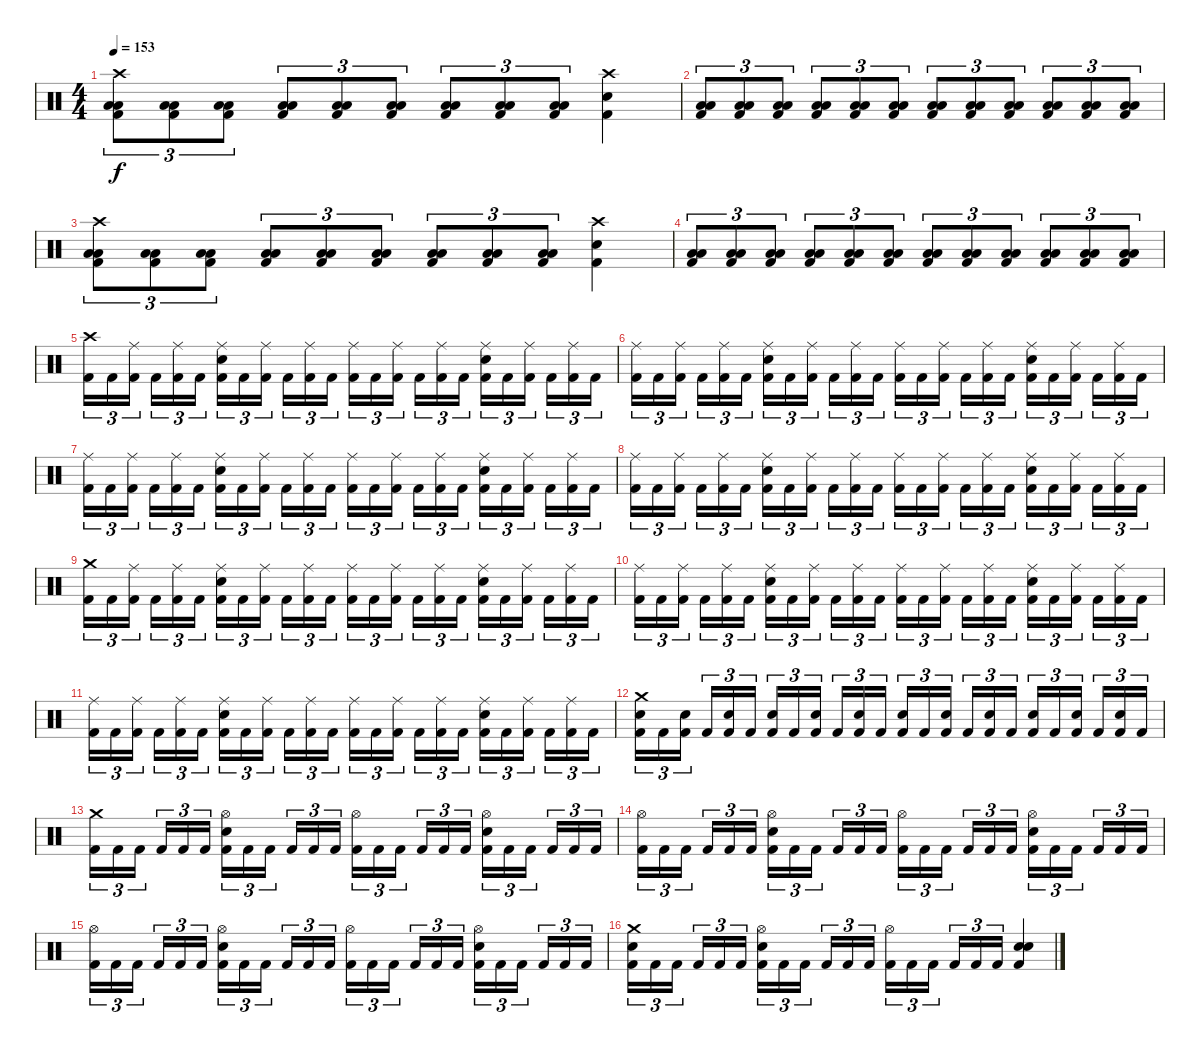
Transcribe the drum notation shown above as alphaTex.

\track "" {instrument percussion}
\staff {score}
\articulation defaults
\ts (4 4)
\tempo 153
\clef neutral
\ks c
("Crash high (hit)" "Low Floor Tom (hit)" "Low Tom (hit)" "Kick (hit) 2").8{tu (3 2) dy f} ("Low Floor Tom (hit)" "Low Tom (hit)" "Kick (hit) 2").8{tu (3 2)} ("Low Floor Tom (hit)" "Low Tom (hit)" "Kick (hit) 2").8{tu (3 2)} ("Low Floor Tom (hit)" "Low Tom (hit)" "Kick (hit) 2").8{tu (3 2)} ("Low Floor Tom (hit)" "Low Tom (hit)" "Kick (hit) 2").8{tu (3 2)} ("Low Floor Tom (hit)" "Low Tom (hit)" "Kick (hit) 2").8{tu (3 2)} ("Low Floor Tom (hit)" "Low Tom (hit)" "Kick (hit) 2").8{tu (3 2)} ("Low Floor Tom (hit)" "Low Tom (hit)" "Kick (hit) 2").8{tu (3 2)} ("Low Floor Tom (hit)" "Low Tom (hit)" "Kick (hit) 2").8{tu (3 2)} ("Crash high (hit)" "Electric Snare (hit)" "Kick (hit) 2").4 |
("Low Floor Tom (hit)" "Low Tom (hit)" "Kick (hit) 2").8{tu (3 2)} ("Low Floor Tom (hit)" "Low Tom (hit)" "Kick (hit) 2").8{tu (3 2)} ("Low Floor Tom (hit)" "Low Tom (hit)" "Kick (hit) 2").8{tu (3 2)} ("Low Floor Tom (hit)" "Low Tom (hit)" "Kick (hit) 2").8{tu (3 2)} ("Low Floor Tom (hit)" "Low Tom (hit)" "Kick (hit) 2").8{tu (3 2)} ("Low Floor Tom (hit)" "Low Tom (hit)" "Kick (hit) 2").8{tu (3 2)} ("Low Floor Tom (hit)" "Low Tom (hit)" "Kick (hit) 2").8{tu (3 2)} ("Low Floor Tom (hit)" "Low Tom (hit)" "Kick (hit) 2").8{tu (3 2)} ("Low Floor Tom (hit)" "Low Tom (hit)" "Kick (hit) 2").8{tu (3 2)} ("Low Floor Tom (hit)" "Low Tom (hit)" "Kick (hit) 2").8{tu (3 2)} ("Low Floor Tom (hit)" "Low Tom (hit)" "Kick (hit) 2").8{tu (3 2)} ("Low Floor Tom (hit)" "Low Tom (hit)" "Kick (hit) 2").8{tu (3 2)} |
("Crash high (hit)" "Low Floor Tom (hit)" "Low Tom (hit)" "Kick (hit) 2").8{tu (3 2)} ("Low Floor Tom (hit)" "Low Tom (hit)" "Kick (hit) 2").8{tu (3 2)} ("Low Floor Tom (hit)" "Low Tom (hit)" "Kick (hit) 2").8{tu (3 2)} ("Low Floor Tom (hit)" "Low Tom (hit)" "Kick (hit) 2").8{tu (3 2)} ("Low Floor Tom (hit)" "Low Tom (hit)" "Kick (hit) 2").8{tu (3 2)} ("Low Floor Tom (hit)" "Low Tom (hit)" "Kick (hit) 2").8{tu (3 2)} ("Low Floor Tom (hit)" "Low Tom (hit)" "Kick (hit) 2").8{tu (3 2)} ("Low Floor Tom (hit)" "Low Tom (hit)" "Kick (hit) 2").8{tu (3 2)} ("Low Floor Tom (hit)" "Low Tom (hit)" "Kick (hit) 2").8{tu (3 2)} ("Crash high (hit)" "Electric Snare (hit)" "Kick (hit) 2").4 |
("Low Floor Tom (hit)" "Low Tom (hit)" "Kick (hit) 2").8{tu (3 2)} ("Low Floor Tom (hit)" "Low Tom (hit)" "Kick (hit) 2").8{tu (3 2)} ("Low Floor Tom (hit)" "Low Tom (hit)" "Kick (hit) 2").8{tu (3 2)} ("Low Floor Tom (hit)" "Low Tom (hit)" "Kick (hit) 2").8{tu (3 2)} ("Low Floor Tom (hit)" "Low Tom (hit)" "Kick (hit) 2").8{tu (3 2)} ("Low Floor Tom (hit)" "Low Tom (hit)" "Kick (hit) 2").8{tu (3 2)} ("Low Floor Tom (hit)" "Low Tom (hit)" "Kick (hit) 2").8{tu (3 2)} ("Low Floor Tom (hit)" "Low Tom (hit)" "Kick (hit) 2").8{tu (3 2)} ("Low Floor Tom (hit)" "Low Tom (hit)" "Kick (hit) 2").8{tu (3 2)} ("Low Floor Tom (hit)" "Low Tom (hit)" "Kick (hit) 2").8{tu (3 2)} ("Low Floor Tom (hit)" "Low Tom (hit)" "Kick (hit) 2").8{tu (3 2)} ("Low Floor Tom (hit)" "Low Tom (hit)" "Kick (hit) 2").8{tu (3 2)} |
\section ("" "")
("Crash high (hit)" "Kick (hit) 2").16{tu (3 2)} "Kick (hit) 2".16{tu (3 2)} ("Ride (middle)" "Kick (hit) 2").16{tu (3 2)} "Kick (hit) 2".16{tu (3 2)} ("Ride (middle)" "Kick (hit) 2").16{tu (3 2)} "Kick (hit) 2".16{tu (3 2)} ("Ride (middle)" "Electric Snare (hit)" "Kick (hit) 2").16{tu (3 2)} "Kick (hit) 2".16{tu (3 2)} ("Ride (middle)" "Kick (hit) 2").16{tu (3 2)} "Kick (hit) 2".16{tu (3 2)} ("Ride (middle)" "Kick (hit) 2").16{tu (3 2)} "Kick (hit) 2".16{tu (3 2)} ("Ride (middle)" "Kick (hit) 2").16{tu (3 2)} "Kick (hit) 2".16{tu (3 2)} ("Ride (middle)" "Kick (hit) 2").16{tu (3 2)} "Kick (hit) 2".16{tu (3 2)} ("Ride (middle)" "Kick (hit) 2").16{tu (3 2)} "Kick (hit) 2".16{tu (3 2)} ("Ride (middle)" "Electric Snare (hit)" "Kick (hit) 2").16{tu (3 2)} "Kick (hit) 2".16{tu (3 2)} ("Ride (middle)" "Kick (hit) 2").16{tu (3 2)} "Kick (hit) 2".16{tu (3 2)} ("Ride (middle)" "Kick (hit) 2").16{tu (3 2)} "Kick (hit) 2".16{tu (3 2)} |
("Ride (middle)" "Kick (hit) 2").16{tu (3 2)} "Kick (hit) 2".16{tu (3 2)} ("Ride (middle)" "Kick (hit) 2").16{tu (3 2)} "Kick (hit) 2".16{tu (3 2)} ("Ride (middle)" "Kick (hit) 2").16{tu (3 2)} "Kick (hit) 2".16{tu (3 2)} ("Ride (middle)" "Electric Snare (hit)" "Kick (hit) 2").16{tu (3 2)} "Kick (hit) 2".16{tu (3 2)} ("Ride (middle)" "Kick (hit) 2").16{tu (3 2)} "Kick (hit) 2".16{tu (3 2)} ("Ride (middle)" "Kick (hit) 2").16{tu (3 2)} "Kick (hit) 2".16{tu (3 2)} ("Ride (middle)" "Kick (hit) 2").16{tu (3 2)} "Kick (hit) 2".16{tu (3 2)} ("Ride (middle)" "Kick (hit) 2").16{tu (3 2)} "Kick (hit) 2".16{tu (3 2)} ("Ride (middle)" "Kick (hit) 2").16{tu (3 2)} "Kick (hit) 2".16{tu (3 2)} ("Ride (middle)" "Electric Snare (hit)" "Kick (hit) 2").16{tu (3 2)} "Kick (hit) 2".16{tu (3 2)} ("Ride (middle)" "Kick (hit) 2").16{tu (3 2)} "Kick (hit) 2".16{tu (3 2)} ("Ride (middle)" "Kick (hit) 2").16{tu (3 2)} "Kick (hit) 2".16{tu (3 2)} |
("Ride (middle)" "Kick (hit) 2").16{tu (3 2)} "Kick (hit) 2".16{tu (3 2)} ("Ride (middle)" "Kick (hit) 2").16{tu (3 2)} "Kick (hit) 2".16{tu (3 2)} ("Ride (middle)" "Kick (hit) 2").16{tu (3 2)} "Kick (hit) 2".16{tu (3 2)} ("Ride (middle)" "Electric Snare (hit)" "Kick (hit) 2").16{tu (3 2)} "Kick (hit) 2".16{tu (3 2)} ("Ride (middle)" "Kick (hit) 2").16{tu (3 2)} "Kick (hit) 2".16{tu (3 2)} ("Ride (middle)" "Kick (hit) 2").16{tu (3 2)} "Kick (hit) 2".16{tu (3 2)} ("Ride (middle)" "Kick (hit) 2").16{tu (3 2)} "Kick (hit) 2".16{tu (3 2)} ("Ride (middle)" "Kick (hit) 2").16{tu (3 2)} "Kick (hit) 2".16{tu (3 2)} ("Ride (middle)" "Kick (hit) 2").16{tu (3 2)} "Kick (hit) 2".16{tu (3 2)} ("Ride (middle)" "Electric Snare (hit)" "Kick (hit) 2").16{tu (3 2)} "Kick (hit) 2".16{tu (3 2)} ("Ride (middle)" "Kick (hit) 2").16{tu (3 2)} "Kick (hit) 2".16{tu (3 2)} ("Ride (middle)" "Kick (hit) 2").16{tu (3 2)} "Kick (hit) 2".16{tu (3 2)} |
("Ride (middle)" "Kick (hit) 2").16{tu (3 2)} "Kick (hit) 2".16{tu (3 2)} ("Ride (middle)" "Kick (hit) 2").16{tu (3 2)} "Kick (hit) 2".16{tu (3 2)} ("Ride (middle)" "Kick (hit) 2").16{tu (3 2)} "Kick (hit) 2".16{tu (3 2)} ("Ride (middle)" "Electric Snare (hit)" "Kick (hit) 2").16{tu (3 2)} "Kick (hit) 2".16{tu (3 2)} ("Ride (middle)" "Kick (hit) 2").16{tu (3 2)} "Kick (hit) 2".16{tu (3 2)} ("Ride (middle)" "Kick (hit) 2").16{tu (3 2)} "Kick (hit) 2".16{tu (3 2)} ("Ride (middle)" "Kick (hit) 2").16{tu (3 2)} "Kick (hit) 2".16{tu (3 2)} ("Ride (middle)" "Kick (hit) 2").16{tu (3 2)} "Kick (hit) 2".16{tu (3 2)} ("Ride (middle)" "Kick (hit) 2").16{tu (3 2)} "Kick (hit) 2".16{tu (3 2)} ("Ride (middle)" "Electric Snare (hit)" "Kick (hit) 2").16{tu (3 2)} "Kick (hit) 2".16{tu (3 2)} ("Ride (middle)" "Kick (hit) 2").16{tu (3 2)} "Kick (hit) 2".16{tu (3 2)} ("Ride (middle)" "Kick (hit) 2").16{tu (3 2)} "Kick (hit) 2".16{tu (3 2)} |
("Crash medium (hit)" "Kick (hit) 2").16{tu (3 2)} "Kick (hit) 2".16{tu (3 2)} ("Ride (middle)" "Kick (hit) 2").16{tu (3 2)} "Kick (hit) 2".16{tu (3 2)} ("Ride (middle)" "Kick (hit) 2").16{tu (3 2)} "Kick (hit) 2".16{tu (3 2)} ("Ride (middle)" "Electric Snare (hit)" "Kick (hit) 2").16{tu (3 2)} "Kick (hit) 2".16{tu (3 2)} ("Ride (middle)" "Kick (hit) 2").16{tu (3 2)} "Kick (hit) 2".16{tu (3 2)} ("Ride (middle)" "Kick (hit) 2").16{tu (3 2)} "Kick (hit) 2".16{tu (3 2)} ("Ride (middle)" "Kick (hit) 2").16{tu (3 2)} "Kick (hit) 2".16{tu (3 2)} ("Ride (middle)" "Kick (hit) 2").16{tu (3 2)} "Kick (hit) 2".16{tu (3 2)} ("Ride (middle)" "Kick (hit) 2").16{tu (3 2)} "Kick (hit) 2".16{tu (3 2)} ("Ride (middle)" "Electric Snare (hit)" "Kick (hit) 2").16{tu (3 2)} "Kick (hit) 2".16{tu (3 2)} ("Ride (middle)" "Kick (hit) 2").16{tu (3 2)} "Kick (hit) 2".16{tu (3 2)} ("Ride (middle)" "Kick (hit) 2").16{tu (3 2)} "Kick (hit) 2".16{tu (3 2)} |
("Ride (middle)" "Kick (hit) 2").16{tu (3 2)} "Kick (hit) 2".16{tu (3 2)} ("Ride (middle)" "Kick (hit) 2").16{tu (3 2)} "Kick (hit) 2".16{tu (3 2)} ("Ride (middle)" "Kick (hit) 2").16{tu (3 2)} "Kick (hit) 2".16{tu (3 2)} ("Ride (middle)" "Electric Snare (hit)" "Kick (hit) 2").16{tu (3 2)} "Kick (hit) 2".16{tu (3 2)} ("Ride (middle)" "Kick (hit) 2").16{tu (3 2)} "Kick (hit) 2".16{tu (3 2)} ("Ride (middle)" "Kick (hit) 2").16{tu (3 2)} "Kick (hit) 2".16{tu (3 2)} ("Ride (middle)" "Kick (hit) 2").16{tu (3 2)} "Kick (hit) 2".16{tu (3 2)} ("Ride (middle)" "Kick (hit) 2").16{tu (3 2)} "Kick (hit) 2".16{tu (3 2)} ("Ride (middle)" "Kick (hit) 2").16{tu (3 2)} "Kick (hit) 2".16{tu (3 2)} ("Ride (middle)" "Electric Snare (hit)" "Kick (hit) 2").16{tu (3 2)} "Kick (hit) 2".16{tu (3 2)} ("Ride (middle)" "Kick (hit) 2").16{tu (3 2)} "Kick (hit) 2".16{tu (3 2)} ("Ride (middle)" "Kick (hit) 2").16{tu (3 2)} "Kick (hit) 2".16{tu (3 2)} |
("Ride (middle)" "Kick (hit) 2").16{tu (3 2)} "Kick (hit) 2".16{tu (3 2)} ("Ride (middle)" "Kick (hit) 2").16{tu (3 2)} "Kick (hit) 2".16{tu (3 2)} ("Ride (middle)" "Kick (hit) 2").16{tu (3 2)} "Kick (hit) 2".16{tu (3 2)} ("Ride (middle)" "Electric Snare (hit)" "Kick (hit) 2").16{tu (3 2)} "Kick (hit) 2".16{tu (3 2)} ("Ride (middle)" "Kick (hit) 2").16{tu (3 2)} "Kick (hit) 2".16{tu (3 2)} ("Ride (middle)" "Kick (hit) 2").16{tu (3 2)} "Kick (hit) 2".16{tu (3 2)} ("Ride (middle)" "Kick (hit) 2").16{tu (3 2)} "Kick (hit) 2".16{tu (3 2)} ("Ride (middle)" "Kick (hit) 2").16{tu (3 2)} "Kick (hit) 2".16{tu (3 2)} ("Ride (middle)" "Kick (hit) 2").16{tu (3 2)} "Kick (hit) 2".16{tu (3 2)} ("Ride (middle)" "Electric Snare (hit)" "Kick (hit) 2").16{tu (3 2)} "Kick (hit) 2".16{tu (3 2)} ("Ride (middle)" "Kick (hit) 2").16{tu (3 2)} "Kick (hit) 2".16{tu (3 2)} ("Ride (middle)" "Kick (hit) 2").16{tu (3 2)} "Kick (hit) 2".16{tu (3 2)} |
("Crash medium (hit)" "Electric Snare (hit)" "Kick (hit) 2").16{tu (3 2)} "Kick (hit) 2".16{tu (3 2)} ("Electric Snare (hit)" "Kick (hit) 2").16{tu (3 2)} "Kick (hit) 2".16{tu (3 2)} ("Electric Snare (hit)" "Kick (hit) 2").16{tu (3 2)} "Kick (hit) 2".16{tu (3 2)} ("Electric Snare (hit)" "Kick (hit) 2").16{tu (3 2)} "Kick (hit) 2".16{tu (3 2)} ("Electric Snare (hit)" "Kick (hit) 2").16{tu (3 2)} "Kick (hit) 2".16{tu (3 2)} ("Electric Snare (hit)" "Kick (hit) 2").16{tu (3 2)} "Kick (hit) 2".16{tu (3 2)} ("Electric Snare (hit)" "Kick (hit) 2").16{tu (3 2)} "Kick (hit) 2".16{tu (3 2)} ("Electric Snare (hit)" "Kick (hit) 2").16{tu (3 2)} "Kick (hit) 2".16{tu (3 2)} ("Electric Snare (hit)" "Kick (hit) 2").16{tu (3 2)} "Kick (hit) 2".16{tu (3 2)} ("Electric Snare (hit)" "Kick (hit) 2").16{tu (3 2)} "Kick (hit) 2".16{tu (3 2)} ("Electric Snare (hit)" "Kick (hit) 2").16{tu (3 2)} "Kick (hit) 2".16{tu (3 2)} ("Electric Snare (hit)" "Kick (hit) 2").16{tu (3 2)} "Kick (hit) 2".16{tu (3 2)} |
\section ("" "")
("Crash medium (hit)" "Kick (hit) 2").16{tu (3 2)} "Kick (hit) 2".16{tu (3 2)} "Kick (hit) 2".16{tu (3 2)} "Kick (hit) 2".16{tu (3 2)} "Kick (hit) 2".16{tu (3 2)} "Kick (hit) 2".16{tu (3 2)} ("Hi-Hat (open)" "Electric Snare (hit)" "Kick (hit) 2").16{tu (3 2)} "Kick (hit) 2".16{tu (3 2)} "Kick (hit) 2".16{tu (3 2)} "Kick (hit) 2".16{tu (3 2)} "Kick (hit) 2".16{tu (3 2)} "Kick (hit) 2".16{tu (3 2)} ("Hi-Hat (open)" "Kick (hit) 2").16{tu (3 2)} "Kick (hit) 2".16{tu (3 2)} "Kick (hit) 2".16{tu (3 2)} "Kick (hit) 2".16{tu (3 2)} "Kick (hit) 2".16{tu (3 2)} "Kick (hit) 2".16{tu (3 2)} ("Hi-Hat (open)" "Electric Snare (hit)" "Kick (hit) 2").16{tu (3 2)} "Kick (hit) 2".16{tu (3 2)} "Kick (hit) 2".16{tu (3 2)} "Kick (hit) 2".16{tu (3 2)} "Kick (hit) 2".16{tu (3 2)} "Kick (hit) 2".16{tu (3 2)} |
("Hi-Hat (open)" "Kick (hit) 2").16{tu (3 2)} "Kick (hit) 2".16{tu (3 2)} "Kick (hit) 2".16{tu (3 2)} "Kick (hit) 2".16{tu (3 2)} "Kick (hit) 2".16{tu (3 2)} "Kick (hit) 2".16{tu (3 2)} ("Hi-Hat (open)" "Electric Snare (hit)" "Kick (hit) 2").16{tu (3 2)} "Kick (hit) 2".16{tu (3 2)} "Kick (hit) 2".16{tu (3 2)} "Kick (hit) 2".16{tu (3 2)} "Kick (hit) 2".16{tu (3 2)} "Kick (hit) 2".16{tu (3 2)} ("Hi-Hat (open)" "Kick (hit) 2").16{tu (3 2)} "Kick (hit) 2".16{tu (3 2)} "Kick (hit) 2".16{tu (3 2)} "Kick (hit) 2".16{tu (3 2)} "Kick (hit) 2".16{tu (3 2)} "Kick (hit) 2".16{tu (3 2)} ("Hi-Hat (open)" "Electric Snare (hit)" "Kick (hit) 2").16{tu (3 2)} "Kick (hit) 2".16{tu (3 2)} "Kick (hit) 2".16{tu (3 2)} "Kick (hit) 2".16{tu (3 2)} "Kick (hit) 2".16{tu (3 2)} "Kick (hit) 2".16{tu (3 2)} |
("Hi-Hat (open)" "Kick (hit) 2").16{tu (3 2)} "Kick (hit) 2".16{tu (3 2)} "Kick (hit) 2".16{tu (3 2)} "Kick (hit) 2".16{tu (3 2)} "Kick (hit) 2".16{tu (3 2)} "Kick (hit) 2".16{tu (3 2)} ("Hi-Hat (open)" "Electric Snare (hit)" "Kick (hit) 2").16{tu (3 2)} "Kick (hit) 2".16{tu (3 2)} "Kick (hit) 2".16{tu (3 2)} "Kick (hit) 2".16{tu (3 2)} "Kick (hit) 2".16{tu (3 2)} "Kick (hit) 2".16{tu (3 2)} ("Hi-Hat (open)" "Kick (hit) 2").16{tu (3 2)} "Kick (hit) 2".16{tu (3 2)} "Kick (hit) 2".16{tu (3 2)} "Kick (hit) 2".16{tu (3 2)} "Kick (hit) 2".16{tu (3 2)} "Kick (hit) 2".16{tu (3 2)} ("Hi-Hat (open)" "Electric Snare (hit)" "Kick (hit) 2").16{tu (3 2)} "Kick (hit) 2".16{tu (3 2)} "Kick (hit) 2".16{tu (3 2)} "Kick (hit) 2".16{tu (3 2)} "Kick (hit) 2".16{tu (3 2)} "Kick (hit) 2".16{tu (3 2)} |
("Crash medium (hit)" "Electric Snare (hit)" "Kick (hit) 2").16{tu (3 2)} "Kick (hit) 2".16{tu (3 2)} "Kick (hit) 2".16{tu (3 2)} "Kick (hit) 2".16{tu (3 2)} "Kick (hit) 2".16{tu (3 2)} "Kick (hit) 2".16{tu (3 2)} ("Hi-Hat (open)" "Electric Snare (hit)" "Kick (hit) 2").16{tu (3 2)} "Kick (hit) 2".16{tu (3 2)} "Kick (hit) 2".16{tu (3 2)} "Kick (hit) 2".16{tu (3 2)} "Kick (hit) 2".16{tu (3 2)} "Kick (hit) 2".16{tu (3 2)} ("Hi-Hat (open)" "Kick (hit) 2").16{tu (3 2)} "Kick (hit) 2".16{tu (3 2)} "Kick (hit) 2".16{tu (3 2)} "Kick (hit) 2".16{tu (3 2)} "Kick (hit) 2".16{tu (3 2)} "Kick (hit) 2".16{tu (3 2)} ("Electric Snare (hit)" "Electric Snare (hit)" "Kick (hit) 2").4
